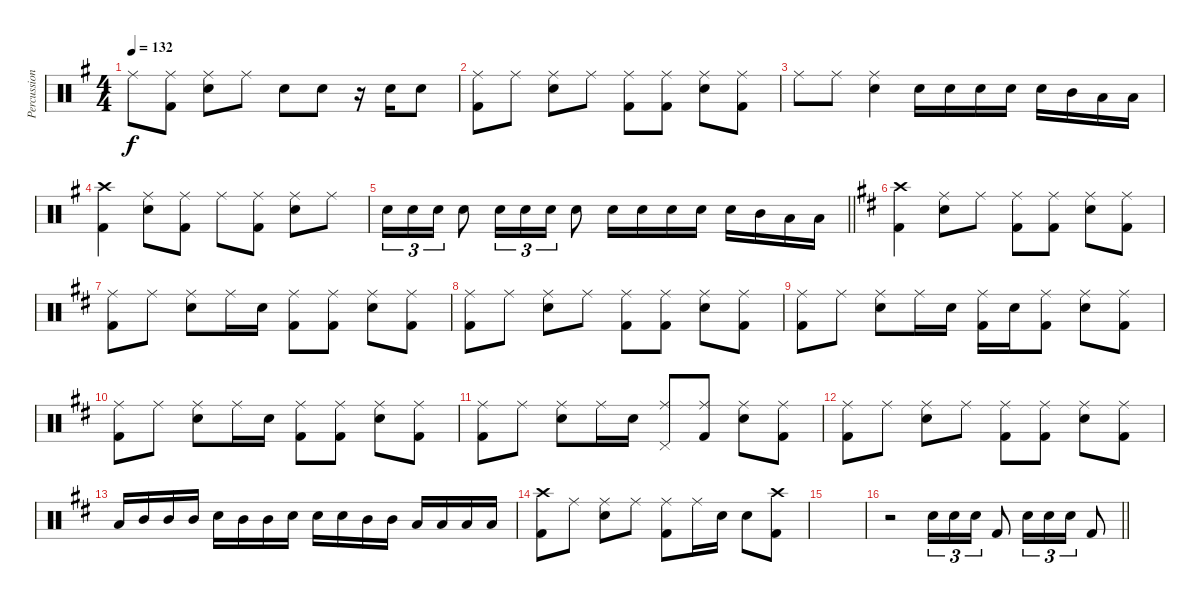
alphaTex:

\track ("Percussion" "Percussion") {instrument percussion}
\staff {score}
\articulation defaults
\ts (4 4)
\tempo 132
\clef neutral
\ks eminor "Ride (middle)".8{dy f}
("Ride (middle)" "Kick (hit) 2").8 ("Ride (middle)" "Snare (hit) 2").8 "Ride (middle)".8 "Snare (hit) 2".8 "Snare (hit) 2".8 r.16 "Snare (hit) 2".16 "Snare (hit) 2".8 |
("Ride (middle)" "Kick (hit) 2").8 "Ride (middle)".8 ("Ride (middle)" "Snare (hit) 2").8 "Ride (middle)".8 ("Ride (middle)" "Kick (hit) 2").8 ("Ride (middle)" "Kick (hit) 2").8 ("Ride (middle)" "Snare (hit) 2").8 ("Ride (middle)" "Kick (hit) 2").8 |
"Ride (middle)".8 "Ride (middle)".8 ("Ride (middle)" "Snare (hit) 2").4 "Snare (hit) 2".16 "Snare (hit) 2".16 "Snare (hit) 2".16 "Snare (hit) 2".16 "Snare (hit) 2".16 "Mid Tom (hit)".16 "Low Floor Tom (hit)".16 "Low Floor Tom (hit)".16 |
("Crash high (hit)" "Kick (hit) 2").4 ("Ride (middle)" "Snare (hit) 2").8 ("Ride (middle)" "Kick (hit) 2").8 "Ride (middle)".8 ("Ride (middle)" "Kick (hit) 2").8 ("Ride (middle)" "Snare (hit) 2").8 "Ride (middle)".8 |
\barLineRight lightlight "Snare (hit) 2".16{tu (3 2)} "Snare (hit) 2".16{tu (3 2)} "Snare (hit) 2".16{tu (3 2)} "Snare (hit) 2".8 "Snare (hit) 2".16{tu (3 2)} "Snare (hit) 2".16{tu (3 2)} "Snare (hit) 2".16{tu (3 2)} "Snare (hit) 2".8 "Snare (hit) 2".16 "Snare (hit) 2".16 "Snare (hit) 2".16 "Snare (hit) 2".16 "Snare (hit) 2".16 "Mid Tom (hit)".16 "Low Floor Tom (hit)".16 "Low Floor Tom (hit)".16
|
\ks d
("Crash high (hit)" "Kick (hit) 2").4 ("Ride (middle)" "Snare (hit) 2").8 "Ride (middle)".8 ("Ride (middle)" "Kick (hit) 2").8 ("Ride (middle)" "Kick (hit) 2").8 ("Ride (middle)" "Snare (hit) 2").8 ("Ride (middle)" "Kick (hit) 2").8 |
("Ride (middle)" "Kick (hit) 2").8 "Ride (middle)".8 ("Ride (middle)" "Snare (hit) 2").8 "Ride (middle)".16 "Snare (hit) 2".16 ("Ride (middle)" "Kick (hit) 2").8 ("Ride (middle)" "Kick (hit) 2").8 ("Ride (middle)" "Snare (hit) 2").8 ("Ride (middle)" "Kick (hit) 2").8 |
("Ride (middle)" "Kick (hit) 2").8 "Ride (middle)".8 ("Ride (middle)" "Snare (hit) 2").8 "Ride (middle)".8 ("Ride (middle)" "Kick (hit) 2").8 ("Ride (middle)" "Kick (hit) 2").8 ("Ride (middle)" "Snare (hit) 2").8 ("Ride (middle)" "Kick (hit) 2").8 |
("Ride (middle)" "Kick (hit) 2").8 "Ride (middle)".8 ("Ride (middle)" "Snare (hit) 2").8 "Ride (middle)".16 "Snare (hit) 2".16 ("Ride (middle)" "Kick (hit) 2").16 "Snare (hit) 2".16 ("Ride (middle)" "Kick (hit) 2").8 ("Ride (middle)" "Snare (hit) 2").8 ("Ride (middle)" "Kick (hit) 2").8 |
("Ride (middle)" "Kick (hit) 2").8 "Ride (middle)".8 ("Ride (middle)" "Snare (hit) 2").8 "Ride (middle)".16 "Snare (hit) 2".16 ("Ride (middle)" "Kick (hit) 2").8 ("Ride (middle)" "Kick (hit) 2").8 ("Ride (middle)" "Snare (hit) 2").8 ("Ride (middle)" "Kick (hit) 2").8 |
("Ride (middle)" "Kick (hit) 2").8 "Ride (middle)".8 ("Ride (middle)" "Snare (hit) 2").8 "Ride (middle)".16 "Snare (hit) 2".16 ("Ride (middle)" "Pedal Hi-Hat (hit)").8 ("Ride (middle)" "Kick (hit) 2").8 ("Ride (middle)" "Snare (hit) 2").8 ("Ride (middle)" "Kick (hit) 2").8 |
("Ride (middle)" "Kick (hit) 2").8 "Ride (middle)".8 ("Ride (middle)" "Snare (hit) 2").8 "Ride (middle)".8 ("Ride (middle)" "Kick (hit) 2").8 ("Ride (middle)" "Kick (hit) 2").8 ("Ride (middle)" "Snare (hit) 2").8 ("Ride (middle)" "Kick (hit) 2").8 |
"Low Floor Tom (hit)".16 "Mid Tom (hit)".16 "Mid Tom (hit)".16 "Mid Tom (hit)".16 "Snare (hit) 2".16 "Mid Tom (hit)".16 "Mid Tom (hit)".16 "Snare (hit) 2".16 "Snare (hit) 2".16 "Snare (hit) 2".16 "Mid Tom (hit)".16 "Mid Tom (hit)".16 "Low Floor Tom (hit)".16 "Low Floor Tom (hit)".16 "Low Floor Tom (hit)".16 "Low Floor Tom (hit)".16 |
("Crash high (hit)" "Kick (hit) 2").8 "Ride (middle)".8 ("Ride (middle)" "Snare (hit) 2").8 "Ride (middle)".8 ("Ride (middle)" "Kick (hit) 2").8 "Ride (middle)".16 "Snare (hit) 2".16 "Snare (hit) 2".8 ("Crash high (hit)" "Kick (hit) 2").8 |
|
\barLineRight lightlight
r.2 "Snare (hit) 2".16{tu (3 2)} "Snare (hit) 2".16{tu (3 2)} "Snare (hit) 2".16{tu (3 2)} "Kick (hit) 2".8 "Snare (hit) 2".16{tu (3 2)} "Snare (hit) 2".16{tu (3 2)} "Snare (hit) 2".16{tu (3 2)} "Kick (hit) 2".8
